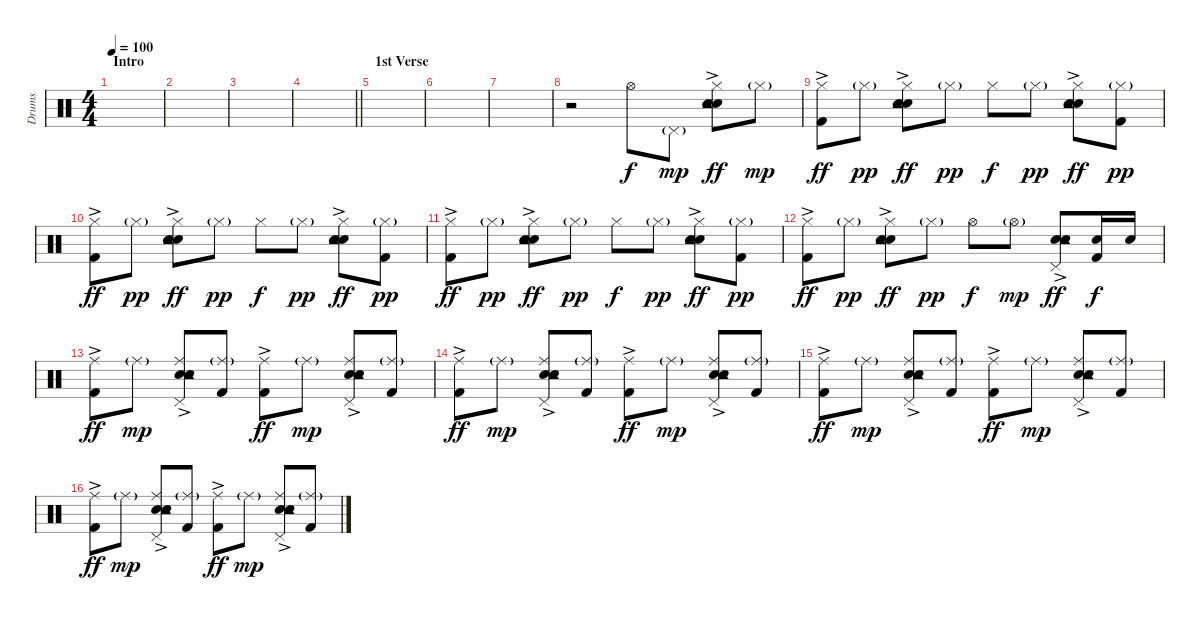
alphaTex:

\track ("Drums" "Drums") {instrument percussion}
\staff {score}
\articulation defaults
\ts (4 4)
\section ("" "Intro")
\tempo 100
\clef neutral
\ks c
|
|
|
\barLineRight lightlight
|
\section ("" "1st Verse")
|
|
|
r.2 "Hi-Hat (open)".8 "Pedal Hi-Hat (hit)"{g}.8{dy mp} ("Electric Snare (hit)"{ac} "Snare (hit) 2" "Tambourine (hit)" "Hi-Hat (closed)").8{dy ff} "Hi-Hat (closed)"{g}.8{dy mp} |
("Kick (hit) 2"{ac} "Hi-Hat (closed)").8{dy ff} "Hi-Hat (closed)"{g}.8{dy pp} ("Electric Snare (hit)"{ac} "Snare (hit) 2" "Tambourine (hit)" "Hi-Hat (closed)").8{dy ff} "Hi-Hat (closed)"{g}.8{dy pp} "Hi-Hat (closed)".8{dy f} "Hi-Hat (closed)"{g}.8{dy pp} ("Electric Snare (hit)"{ac} "Snare (hit) 2" "Tambourine (hit)" "Hi-Hat (closed)").8{dy ff} ("Kick (hit) 2" "Hi-Hat (closed)"{g}).8{dy pp} |
("Kick (hit) 2"{ac} "Hi-Hat (closed)").8{dy ff} "Hi-Hat (closed)"{g}.8{dy pp} ("Electric Snare (hit)"{ac} "Snare (hit) 2" "Tambourine (hit)" "Hi-Hat (closed)").8{dy ff} "Hi-Hat (closed)"{g}.8{dy pp} "Hi-Hat (closed)".8{dy f} "Hi-Hat (closed)"{g}.8{dy pp} ("Electric Snare (hit)"{ac} "Snare (hit) 2" "Tambourine (hit)" "Hi-Hat (closed)").8{dy ff} ("Kick (hit) 2" "Hi-Hat (closed)"{g}).8{dy pp} |
("Kick (hit) 2"{ac} "Hi-Hat (closed)").8{dy ff} "Hi-Hat (closed)"{g}.8{dy pp} ("Electric Snare (hit)"{ac} "Snare (hit) 2" "Tambourine (hit)" "Hi-Hat (closed)").8{dy ff} "Hi-Hat (closed)"{g}.8{dy pp} "Hi-Hat (closed)".8{dy f} "Hi-Hat (closed)"{g}.8{dy pp} ("Electric Snare (hit)"{ac} "Snare (hit) 2" "Tambourine (hit)" "Hi-Hat (closed)").8{dy ff} ("Kick (hit) 2" "Hi-Hat (closed)"{g}).8{dy pp} |
("Kick (hit) 2"{ac} "Hi-Hat (closed)").8{dy ff} "Hi-Hat (closed)"{g}.8{dy pp} ("Electric Snare (hit)"{ac} "Snare (hit) 2" "Tambourine (hit)" "Hi-Hat (closed)").8{dy ff} "Hi-Hat (closed)"{g}.8{dy pp} "Hi-Hat (open)".8{dy f} "Hi-Hat (open)"{g}.8{dy mp} ("Electric Snare (hit)"{ac} "Snare (hit) 2" "Tambourine (hit)" "Pedal Hi-Hat (hit)").8{dy ff} ("Kick (hit) 2" "Snare (hit) 2").16{dy f} "Snare (hit) 2".16 |
("Kick (hit) 2"{ac} "Ride (middle)").8{dy ff} "Ride (middle)"{g}.8{dy mp} ("Electric Snare (hit)"{ac} "Snare (hit) 2" "Pedal Hi-Hat (hit)" "Tambourine (hit)" "Ride (middle)").8 ("Kick (hit) 2" "Ride (middle)"{g}).8 ("Kick (hit) 2"{ac} "Ride (middle)").8{dy ff} "Ride (middle)"{g}.8{dy mp} ("Electric Snare (hit)"{ac} "Snare (hit) 2" "Pedal Hi-Hat (hit)" "Tambourine (hit)" "Ride (middle)").8 ("Kick (hit) 2" "Ride (middle)"{g}).8 |
("Kick (hit) 2"{ac} "Ride (middle)").8{dy ff} "Ride (middle)"{g}.8{dy mp} ("Electric Snare (hit)"{ac} "Snare (hit) 2" "Pedal Hi-Hat (hit)" "Tambourine (hit)" "Ride (middle)").8 ("Kick (hit) 2" "Ride (middle)"{g}).8 ("Kick (hit) 2"{ac} "Ride (middle)").8{dy ff} "Ride (middle)"{g}.8{dy mp} ("Electric Snare (hit)"{ac} "Snare (hit) 2" "Pedal Hi-Hat (hit)" "Tambourine (hit)" "Ride (middle)").8 ("Kick (hit) 2" "Ride (middle)"{g}).8 |
("Kick (hit) 2"{ac} "Ride (middle)").8{dy ff} "Ride (middle)"{g}.8{dy mp} ("Electric Snare (hit)"{ac} "Snare (hit) 2" "Pedal Hi-Hat (hit)" "Tambourine (hit)" "Ride (middle)").8 ("Kick (hit) 2" "Ride (middle)"{g}).8 ("Kick (hit) 2"{ac} "Ride (middle)").8{dy ff} "Ride (middle)"{g}.8{dy mp} ("Electric Snare (hit)"{ac} "Snare (hit) 2" "Pedal Hi-Hat (hit)" "Tambourine (hit)" "Ride (middle)").8 ("Kick (hit) 2" "Ride (middle)"{g}).8 |
("Kick (hit) 2"{ac} "Ride (middle)").8{dy ff} "Ride (middle)"{g}.8{dy mp} ("Electric Snare (hit)"{ac} "Snare (hit) 2" "Pedal Hi-Hat (hit)" "Tambourine (hit)" "Ride (middle)").8 ("Kick (hit) 2" "Ride (middle)"{g}).8 ("Kick (hit) 2"{ac} "Ride (middle)").8{dy ff} "Ride (middle)"{g}.8{dy mp} ("Electric Snare (hit)"{ac} "Snare (hit) 2" "Pedal Hi-Hat (hit)" "Tambourine (hit)" "Ride (middle)").8 ("Kick (hit) 2" "Ride (middle)"{g}).8
